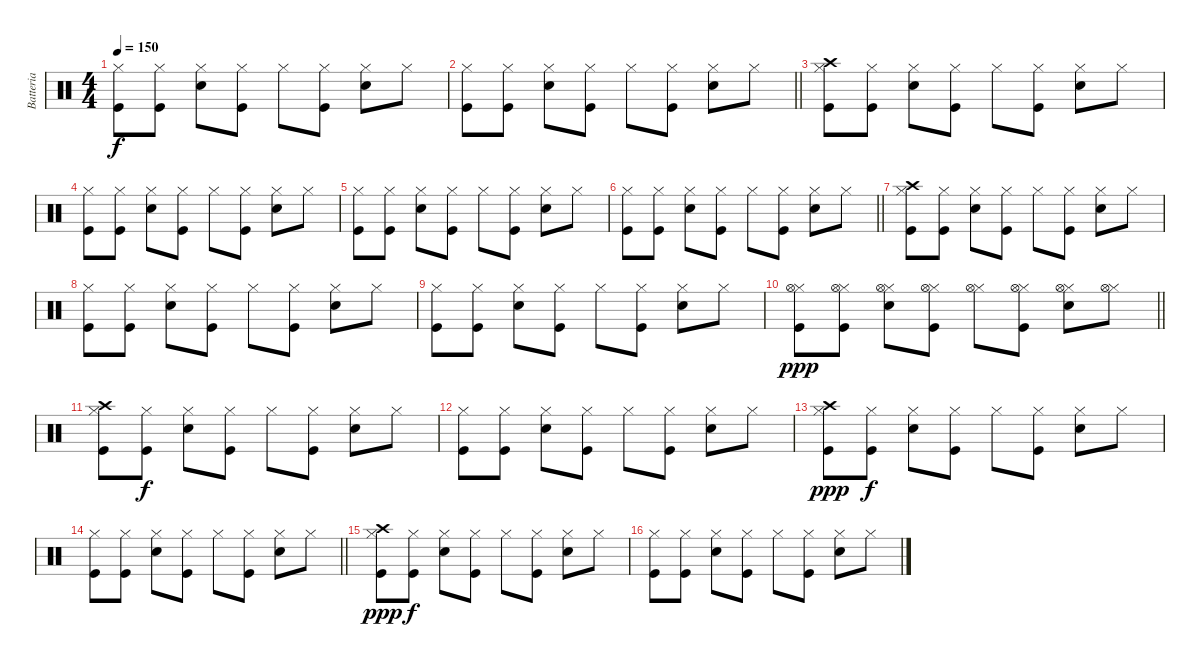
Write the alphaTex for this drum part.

\track ("Batteria" "Batteria") {instrument percussion}
\staff {score}
\articulation defaults
\ts (4 4)
\tempo 150
\clef neutral
\ks c
("Hi-Hat (closed)" "Kick (hit)").8{dy f} ("Hi-Hat (closed)" "Kick (hit)").8 ("Hi-Hat (closed)" "Snare (hit) 2").8 ("Hi-Hat (closed)" "Kick (hit)").8 "Hi-Hat (closed)".8 ("Hi-Hat (closed)" "Kick (hit)").8 ("Hi-Hat (closed)" "Snare (hit) 2").8 "Hi-Hat (closed)".8 |
\barLineRight lightlight
("Hi-Hat (closed)" "Kick (hit)").8 ("Hi-Hat (closed)" "Kick (hit)").8 ("Hi-Hat (closed)" "Snare (hit) 2").8 ("Hi-Hat (closed)" "Kick (hit)").8 "Hi-Hat (closed)".8 ("Hi-Hat (closed)" "Kick (hit)").8 ("Hi-Hat (closed)" "Snare (hit) 2").8 "Hi-Hat (closed)".8 |
("Hi-Hat (closed)" "Kick (hit)" "Crash high (hit)").8 ("Hi-Hat (closed)" "Kick (hit)").8 ("Hi-Hat (closed)" "Snare (hit) 2").8 ("Hi-Hat (closed)" "Kick (hit)").8 "Hi-Hat (closed)".8 ("Hi-Hat (closed)" "Kick (hit)").8 ("Hi-Hat (closed)" "Snare (hit) 2").8 "Hi-Hat (closed)".8 |
("Hi-Hat (closed)" "Kick (hit)").8 ("Hi-Hat (closed)" "Kick (hit)").8 ("Hi-Hat (closed)" "Snare (hit) 2").8 ("Hi-Hat (closed)" "Kick (hit)").8 "Hi-Hat (closed)".8 ("Hi-Hat (closed)" "Kick (hit)").8 ("Hi-Hat (closed)" "Snare (hit) 2").8 "Hi-Hat (closed)".8 |
("Hi-Hat (closed)" "Kick (hit)").8 ("Hi-Hat (closed)" "Kick (hit)").8 ("Hi-Hat (closed)" "Snare (hit) 2").8 ("Hi-Hat (closed)" "Kick (hit)").8 "Hi-Hat (closed)".8 ("Hi-Hat (closed)" "Kick (hit)").8 ("Hi-Hat (closed)" "Snare (hit) 2").8 "Hi-Hat (closed)".8 |
\barLineRight lightlight
("Hi-Hat (closed)" "Kick (hit)").8 ("Hi-Hat (closed)" "Kick (hit)").8 ("Hi-Hat (closed)" "Snare (hit) 2").8 ("Hi-Hat (closed)" "Kick (hit)").8 "Hi-Hat (closed)".8 ("Hi-Hat (closed)" "Kick (hit)").8 ("Hi-Hat (closed)" "Snare (hit) 2").8 "Hi-Hat (closed)".8 |
("Hi-Hat (closed)" "Crash high (hit)" "Kick (hit)").8 ("Hi-Hat (closed)" "Kick (hit)").8 ("Hi-Hat (closed)" "Snare (hit) 2").8 ("Hi-Hat (closed)" "Kick (hit)").8 "Hi-Hat (closed)".8 ("Hi-Hat (closed)" "Kick (hit)").8 ("Hi-Hat (closed)" "Snare (hit) 2").8 "Hi-Hat (closed)".8 |
("Hi-Hat (closed)" "Kick (hit)").8 ("Hi-Hat (closed)" "Kick (hit)").8 ("Hi-Hat (closed)" "Snare (hit) 2").8 ("Hi-Hat (closed)" "Kick (hit)").8 "Hi-Hat (closed)".8 ("Hi-Hat (closed)" "Kick (hit)").8 ("Hi-Hat (closed)" "Snare (hit) 2").8 "Hi-Hat (closed)".8 |
("Hi-Hat (closed)" "Kick (hit)").8 ("Hi-Hat (closed)" "Kick (hit)").8 ("Hi-Hat (closed)" "Snare (hit) 2").8 ("Hi-Hat (closed)" "Kick (hit)").8 "Hi-Hat (closed)".8 ("Hi-Hat (closed)" "Kick (hit)").8 ("Hi-Hat (closed)" "Snare (hit) 2").8 "Hi-Hat (closed)".8 |
\barLineRight lightlight
("Hi-Hat (closed)" "Hi-Hat (open)" "Kick (hit)").8{dy ppp} ("Hi-Hat (closed)" "Hi-Hat (open)" "Kick (hit)").8 ("Hi-Hat (closed)" "Hi-Hat (open)" "Snare (hit) 2").8 ("Hi-Hat (closed)" "Hi-Hat (open)" "Kick (hit)").8 ("Hi-Hat (closed)" "Hi-Hat (open)").8 ("Hi-Hat (closed)" "Hi-Hat (open)" "Kick (hit)").8 ("Hi-Hat (closed)" "Hi-Hat (open)" "Snare (hit) 2").8 ("Hi-Hat (closed)" "Hi-Hat (open)").8 |
("Hi-Hat (closed)" "Crash high (hit)" "Kick (hit)").8 ("Hi-Hat (closed)" "Kick (hit)").8{dy f} ("Hi-Hat (closed)" "Snare (hit) 2").8 ("Hi-Hat (closed)" "Kick (hit)").8 "Hi-Hat (closed)".8 ("Hi-Hat (closed)" "Kick (hit)").8 ("Hi-Hat (closed)" "Snare (hit) 2").8 "Hi-Hat (closed)".8 |
("Hi-Hat (closed)" "Kick (hit)").8 ("Hi-Hat (closed)" "Kick (hit)").8 ("Hi-Hat (closed)" "Snare (hit) 2").8 ("Hi-Hat (closed)" "Kick (hit)").8 "Hi-Hat (closed)".8 ("Hi-Hat (closed)" "Kick (hit)").8 ("Hi-Hat (closed)" "Snare (hit) 2").8 "Hi-Hat (closed)".8 |
("Hi-Hat (closed)" "Crash high (hit)" "Kick (hit)").8{dy ppp} ("Hi-Hat (closed)" "Kick (hit)").8{dy f} ("Hi-Hat (closed)" "Snare (hit) 2").8 ("Hi-Hat (closed)" "Kick (hit)").8 "Hi-Hat (closed)".8 ("Hi-Hat (closed)" "Kick (hit)").8 ("Hi-Hat (closed)" "Snare (hit) 2").8 "Hi-Hat (closed)".8 |
\barLineRight lightlight
("Hi-Hat (closed)" "Kick (hit)").8 ("Hi-Hat (closed)" "Kick (hit)").8 ("Hi-Hat (closed)" "Snare (hit) 2").8 ("Hi-Hat (closed)" "Kick (hit)").8 "Hi-Hat (closed)".8 ("Hi-Hat (closed)" "Kick (hit)").8 ("Hi-Hat (closed)" "Snare (hit) 2").8 "Hi-Hat (closed)".8 |
("Hi-Hat (closed)" "Crash high (hit)" "Kick (hit)").8{dy ppp} ("Hi-Hat (closed)" "Kick (hit)").8{dy f} ("Hi-Hat (closed)" "Snare (hit) 2").8 ("Hi-Hat (closed)" "Kick (hit)").8 "Hi-Hat (closed)".8 ("Hi-Hat (closed)" "Kick (hit)").8 ("Hi-Hat (closed)" "Snare (hit) 2").8 "Hi-Hat (closed)".8 |
("Hi-Hat (closed)" "Kick (hit)").8 ("Hi-Hat (closed)" "Kick (hit)").8 ("Hi-Hat (closed)" "Snare (hit) 2").8 ("Hi-Hat (closed)" "Kick (hit)").8 "Hi-Hat (closed)".8 ("Hi-Hat (closed)" "Kick (hit)").8 ("Hi-Hat (closed)" "Snare (hit) 2").8 "Hi-Hat (closed)".8
